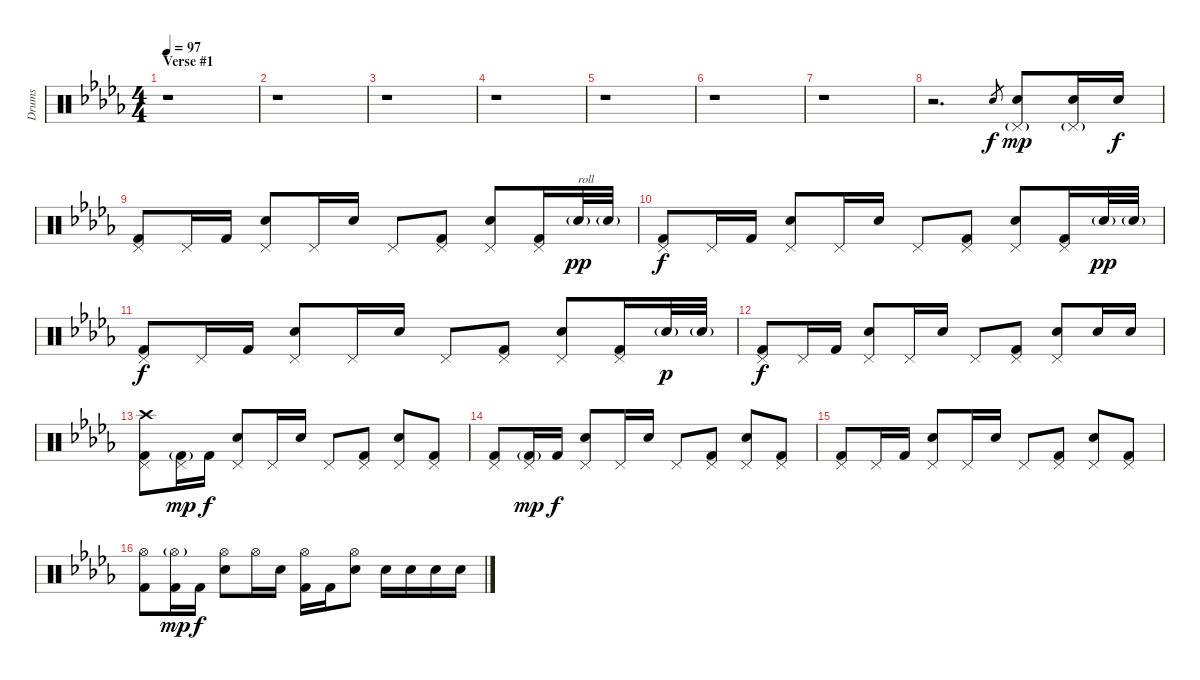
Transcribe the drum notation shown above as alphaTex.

\track ("Drums" "Drums") {instrument percussion}
\staff {score}
\articulation defaults
\ts (4 4)
\section ("" "Verse #1")
\tempo 97
\clef neutral
\ks db
r.1{dy f} |
r.1 |
r.1 |
r.1 |
r.1 |
r.1 |
r.1 |
r.2{d} "Electric Snare (hit)".8{gr} ("Pedal Hi-Hat (hit)"{g} "Electric Snare (hit)").8{dy mp} ("Pedal Hi-Hat (hit)"{g} "Electric Snare (hit)").16 "Electric Snare (hit)".16{dy f} |
("Pedal Hi-Hat (hit)" "Kick (hit) 2").8 "Pedal Hi-Hat (hit)".16 "Kick (hit) 2".16 ("Pedal Hi-Hat (hit)" "Electric Snare (hit)").8 "Pedal Hi-Hat (hit)".16 "Electric Snare (hit)".16 "Pedal Hi-Hat (hit)".8 ("Pedal Hi-Hat (hit)" "Kick (hit) 2").8 ("Pedal Hi-Hat (hit)" "Electric Snare (hit)").8 ("Pedal Hi-Hat (hit)" "Kick (hit) 2").16 "Electric Snare (hit)"{g}.32{txt "roll" dy pp} "Electric Snare (hit)"{g}.32 |
("Pedal Hi-Hat (hit)" "Kick (hit) 2").8{dy f} "Pedal Hi-Hat (hit)".16 "Kick (hit) 2".16 ("Pedal Hi-Hat (hit)" "Electric Snare (hit)").8 "Pedal Hi-Hat (hit)".16 "Electric Snare (hit)".16 "Pedal Hi-Hat (hit)".8 ("Pedal Hi-Hat (hit)" "Kick (hit) 2").8 ("Pedal Hi-Hat (hit)" "Electric Snare (hit)").8 ("Pedal Hi-Hat (hit)" "Kick (hit) 2").16 "Electric Snare (hit)"{g}.32{dy pp} "Electric Snare (hit)"{g}.32 |
("Pedal Hi-Hat (hit)" "Kick (hit) 2").8{dy f} "Pedal Hi-Hat (hit)".16 "Kick (hit) 2".16 ("Pedal Hi-Hat (hit)" "Electric Snare (hit)").8 "Pedal Hi-Hat (hit)".16 "Electric Snare (hit)".16 "Pedal Hi-Hat (hit)".8 ("Pedal Hi-Hat (hit)" "Kick (hit) 2").8 ("Pedal Hi-Hat (hit)" "Electric Snare (hit)").8 ("Pedal Hi-Hat (hit)" "Kick (hit) 2").16 "Electric Snare (hit)"{g}.32{dy p} "Electric Snare (hit)"{g}.32 |
("Pedal Hi-Hat (hit)" "Kick (hit) 2").8{dy f} "Pedal Hi-Hat (hit)".16 "Kick (hit) 2".16 ("Pedal Hi-Hat (hit)" "Electric Snare (hit)").8 "Pedal Hi-Hat (hit)".16 "Electric Snare (hit)".16 "Pedal Hi-Hat (hit)".8 ("Pedal Hi-Hat (hit)" "Kick (hit) 2").8 ("Pedal Hi-Hat (hit)" "Electric Snare (hit)").8 "Electric Snare (hit)".16 "Electric Snare (hit)".16 |
("Crash high (hit)" "Pedal Hi-Hat (hit)" "Kick (hit) 2").8 ("Pedal Hi-Hat (hit)" "Kick (hit) 2"{g}).16{dy mp} "Kick (hit) 2".16{dy f} ("Pedal Hi-Hat (hit)" "Electric Snare (hit)").8 "Pedal Hi-Hat (hit)".16 "Electric Snare (hit)".16 "Pedal Hi-Hat (hit)".8 ("Pedal Hi-Hat (hit)" "Kick (hit) 2").8 ("Pedal Hi-Hat (hit)" "Electric Snare (hit)").8 ("Pedal Hi-Hat (hit)" "Kick (hit) 2").8 |
("Pedal Hi-Hat (hit)" "Kick (hit) 2").8 ("Pedal Hi-Hat (hit)" "Kick (hit) 2"{g}).16{dy mp} "Kick (hit) 2".16{dy f} ("Pedal Hi-Hat (hit)" "Electric Snare (hit)").8 "Pedal Hi-Hat (hit)".16 "Electric Snare (hit)".16 "Pedal Hi-Hat (hit)".8 ("Pedal Hi-Hat (hit)" "Kick (hit) 2").8 ("Pedal Hi-Hat (hit)" "Electric Snare (hit)").8 ("Pedal Hi-Hat (hit)" "Kick (hit) 2").8 |
("Pedal Hi-Hat (hit)" "Kick (hit) 2").8 "Pedal Hi-Hat (hit)".16 "Kick (hit) 2".16 ("Pedal Hi-Hat (hit)" "Electric Snare (hit)").8 "Pedal Hi-Hat (hit)".16 "Electric Snare (hit)".16 "Pedal Hi-Hat (hit)".8 ("Pedal Hi-Hat (hit)" "Kick (hit) 2").8 ("Pedal Hi-Hat (hit)" "Electric Snare (hit)").8 ("Pedal Hi-Hat (hit)" "Kick (hit) 2").8 |
("Hi-Hat (open)" "Kick (hit) 2").8 ("Hi-Hat (open)"{g} "Kick (hit) 2").16{dy mp} "Kick (hit) 2".16{dy f} ("Hi-Hat (open)" "Electric Snare (hit)").8 "Hi-Hat (open)".16 "Electric Snare (hit)".16 ("Hi-Hat (open)" "Kick (hit) 2").16 "Kick (hit) 2".16 ("Hi-Hat (open)" "Electric Snare (hit)").8 "Electric Snare (hit)".16 "Electric Snare (hit)".16 "Electric Snare (hit)".16 "Electric Snare (hit)".16
